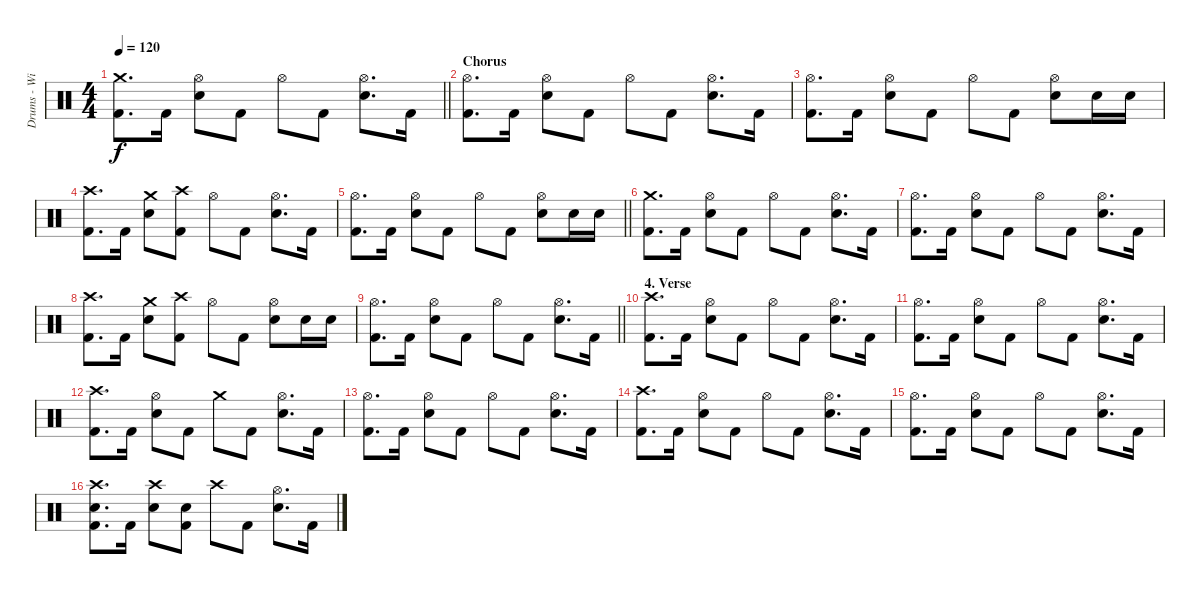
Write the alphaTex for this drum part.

\track ("Drums - Willi Wurm" "Drums - Wi") {instrument percussion}
\staff {score}
\articulation defaults
\ts (4 4)
\tempo 120
\clef neutral
\barLineRight lightlight
\ks c
("Crash medium (hit)" "Kick (hit) 2").8{d dy f} "Kick (hit) 2".16 ("Hi-Hat (open)" "Snare (hit) 2").8 "Kick (hit) 2".8 "Hi-Hat (open)".8 "Kick (hit) 2".8 ("Hi-Hat (open)" "Snare (hit) 2").8{d} "Kick (hit) 2".16 |
\section ("" "Chorus")
("Hi-Hat (open)" "Kick (hit) 2").8{d} "Kick (hit) 2".16 ("Hi-Hat (open)" "Snare (hit) 2").8 "Kick (hit) 2".8 "Hi-Hat (open)".8 "Kick (hit) 2".8 ("Hi-Hat (open)" "Snare (hit) 2").8{d} "Kick (hit) 2".16 |
("Hi-Hat (open)" "Kick (hit) 2").8{d} "Kick (hit) 2".16 ("Hi-Hat (open)" "Snare (hit) 2").8 "Kick (hit) 2".8 "Hi-Hat (open)".8 "Kick (hit) 2".8 ("Hi-Hat (open)" "Snare (hit) 2").8 "Snare (hit) 2".16 "Snare (hit) 2".16 |
("Crash high (hit)" "Kick (hit) 2").8{d} "Kick (hit) 2".16 ("Crash medium (hit)" "Snare (hit) 2").8 ("Crash high (hit)" "Kick (hit) 2").8 "Hi-Hat (open)".8 "Kick (hit) 2".8 ("Hi-Hat (open)" "Snare (hit) 2").8{d} "Kick (hit) 2".16 |
\barLineRight lightlight
("Hi-Hat (open)" "Kick (hit) 2").8{d} "Kick (hit) 2".16 ("Hi-Hat (open)" "Snare (hit) 2").8 "Kick (hit) 2".8 "Hi-Hat (open)".8 "Kick (hit) 2".8 ("Hi-Hat (open)" "Snare (hit) 2").8 "Snare (hit) 2".16 "Snare (hit) 2".16 |
("Crash medium (hit)" "Kick (hit) 2").8{d} "Kick (hit) 2".16 ("Hi-Hat (open)" "Snare (hit) 2").8 "Kick (hit) 2".8 "Hi-Hat (open)".8 "Kick (hit) 2".8 ("Hi-Hat (open)" "Snare (hit) 2").8{d} "Kick (hit) 2".16 |
("Hi-Hat (open)" "Kick (hit) 2").8{d} "Kick (hit) 2".16 ("Hi-Hat (open)" "Snare (hit) 2").8 "Kick (hit) 2".8 "Hi-Hat (open)".8 "Kick (hit) 2".8 ("Hi-Hat (open)" "Snare (hit) 2").8{d} "Kick (hit) 2".16 |
("Crash high (hit)" "Kick (hit) 2").8{d} "Kick (hit) 2".16 ("Crash medium (hit)" "Snare (hit) 2").8 ("Crash high (hit)" "Kick (hit) 2").8 "Hi-Hat (open)".8 "Kick (hit) 2".8 ("Hi-Hat (open)" "Snare (hit) 2").8 "Snare (hit) 2".16 "Snare (hit) 2".16 |
\barLineRight lightlight
("Hi-Hat (open)" "Kick (hit) 2").8{d} "Kick (hit) 2".16 ("Hi-Hat (open)" "Snare (hit) 2").8 "Kick (hit) 2".8 "Hi-Hat (open)".8 "Kick (hit) 2".8 ("Hi-Hat (open)" "Snare (hit) 2").8{d} "Kick (hit) 2".16 |
\section ("" "4. Verse")
("Crash high (hit)" "Kick (hit) 2").8{d} "Kick (hit) 2".16 ("Hi-Hat (open)" "Snare (hit) 2").8 "Kick (hit) 2".8 "Hi-Hat (open)".8 "Kick (hit) 2".8 ("Hi-Hat (open)" "Snare (hit) 2").8{d} "Kick (hit) 2".16 |
("Hi-Hat (open)" "Kick (hit) 2").8{d} "Kick (hit) 2".16 ("Hi-Hat (open)" "Snare (hit) 2").8 "Kick (hit) 2".8 "Hi-Hat (open)".8 "Kick (hit) 2".8 ("Hi-Hat (open)" "Snare (hit) 2").8{d} "Kick (hit) 2".16 |
("Crash high (hit)" "Kick (hit) 2").8{d} "Kick (hit) 2".16 ("Hi-Hat (open)" "Snare (hit) 2").8 "Kick (hit) 2".8 "Crash medium (hit)".8 "Kick (hit) 2".8 ("Hi-Hat (open)" "Snare (hit) 2").8{d} "Kick (hit) 2".16 |
("Hi-Hat (open)" "Kick (hit) 2").8{d} "Kick (hit) 2".16 ("Hi-Hat (open)" "Snare (hit) 2").8 "Kick (hit) 2".8 "Hi-Hat (open)".8 "Kick (hit) 2".8 ("Hi-Hat (open)" "Snare (hit) 2").8{d} "Kick (hit) 2".16 |
("Crash high (hit)" "Kick (hit) 2").8{d} "Kick (hit) 2".16 ("Hi-Hat (open)" "Snare (hit) 2").8 "Kick (hit) 2".8 "Hi-Hat (open)".8 "Kick (hit) 2".8 ("Hi-Hat (open)" "Snare (hit) 2").8{d} "Kick (hit) 2".16 |
("Hi-Hat (open)" "Kick (hit) 2").8{d} "Kick (hit) 2".16 ("Hi-Hat (open)" "Snare (hit) 2").8 "Kick (hit) 2".8 "Hi-Hat (open)".8 "Kick (hit) 2".8 ("Hi-Hat (open)" "Snare (hit) 2").8{d} "Kick (hit) 2".16 |
("Crash high (hit)" "Snare (hit) 2" "Kick (hit) 2").8{d} "Kick (hit) 2".16 ("Crash high (hit)" "Snare (hit) 2").8 ("Snare (hit) 2" "Kick (hit) 2").8 "Crash high (hit)".8 "Kick (hit) 2".8 ("Hi-Hat (open)" "Snare (hit) 2").8{d} "Kick (hit) 2".16
